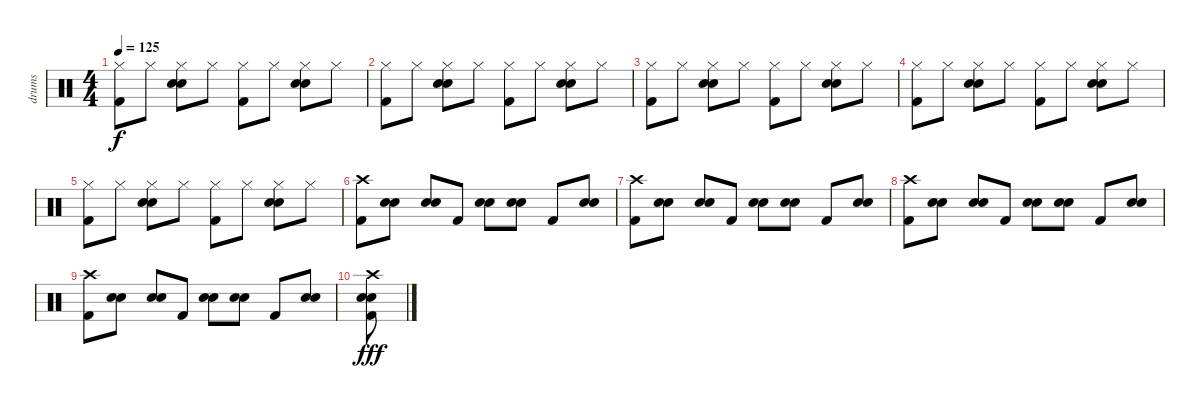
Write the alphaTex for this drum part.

\track ("drums" "drums") {instrument percussion}
\staff {score}
\articulation defaults
\ts (4 4)
\tempo 125
\clef neutral
\ks c
("Hi-Hat (closed)" "Kick (hit) 2").8{dy f} "Hi-Hat (closed)".8 ("Hi-Hat (closed)" "Snare (hit) 2" "Electric Snare (hit)").8 "Hi-Hat (closed)".8 ("Hi-Hat (closed)" "Kick (hit) 2").8 "Hi-Hat (closed)".8 ("Hi-Hat (closed)" "Snare (hit) 2" "Electric Snare (hit)").8 "Hi-Hat (closed)".8 |
("Hi-Hat (closed)" "Kick (hit) 2").8 "Hi-Hat (closed)".8 ("Hi-Hat (closed)" "Snare (hit) 2" "Electric Snare (hit)").8 "Hi-Hat (closed)".8 ("Hi-Hat (closed)" "Kick (hit) 2").8 "Hi-Hat (closed)".8 ("Hi-Hat (closed)" "Snare (hit) 2" "Electric Snare (hit)").8 "Hi-Hat (closed)".8 |
("Hi-Hat (closed)" "Kick (hit) 2").8 "Hi-Hat (closed)".8 ("Hi-Hat (closed)" "Snare (hit) 2" "Electric Snare (hit)").8 "Hi-Hat (closed)".8 ("Hi-Hat (closed)" "Kick (hit) 2").8 "Hi-Hat (closed)".8 ("Hi-Hat (closed)" "Snare (hit) 2" "Electric Snare (hit)").8 "Hi-Hat (closed)".8 |
("Hi-Hat (closed)" "Kick (hit) 2").8 "Hi-Hat (closed)".8 ("Hi-Hat (closed)" "Snare (hit) 2" "Electric Snare (hit)").8 "Hi-Hat (closed)".8 ("Hi-Hat (closed)" "Kick (hit) 2").8 "Hi-Hat (closed)".8 ("Hi-Hat (closed)" "Snare (hit) 2" "Electric Snare (hit)").8 "Hi-Hat (closed)".8 |
("Hi-Hat (closed)" "Kick (hit) 2").8 "Hi-Hat (closed)".8 ("Hi-Hat (closed)" "Snare (hit) 2" "Electric Snare (hit)").8 "Hi-Hat (closed)".8 ("Hi-Hat (closed)" "Kick (hit) 2").8 "Hi-Hat (closed)".8 ("Hi-Hat (closed)" "Snare (hit) 2" "Electric Snare (hit)").8 "Hi-Hat (closed)".8 |
("Crash high (hit)" "Kick (hit) 2").8 ("Snare (hit) 2" "Electric Snare (hit)").8 ("Snare (hit) 2" "Electric Snare (hit)").8 "Kick (hit) 2".8 ("Electric Snare (hit)" "Snare (hit) 2").8 ("Electric Snare (hit)" "Snare (hit) 2").8 "Kick (hit) 2".8 ("Electric Snare (hit)" "Snare (hit) 2").8 |
("Crash high (hit)" "Kick (hit) 2").8 ("Snare (hit) 2" "Electric Snare (hit)").8 ("Snare (hit) 2" "Electric Snare (hit)").8 "Kick (hit) 2".8 ("Electric Snare (hit)" "Snare (hit) 2").8 ("Electric Snare (hit)" "Snare (hit) 2").8 "Kick (hit) 2".8 ("Electric Snare (hit)" "Snare (hit) 2").8 |
("Crash high (hit)" "Kick (hit) 2").8 ("Snare (hit) 2" "Electric Snare (hit)").8 ("Snare (hit) 2" "Electric Snare (hit)").8 "Kick (hit) 2".8 ("Electric Snare (hit)" "Snare (hit) 2").8 ("Electric Snare (hit)" "Snare (hit) 2").8 "Kick (hit) 2".8 ("Electric Snare (hit)" "Snare (hit) 2").8 |
("Crash high (hit)" "Kick (hit) 2").8 ("Snare (hit) 2" "Electric Snare (hit)").8 ("Snare (hit) 2" "Electric Snare (hit)").8 "Kick (hit) 2".8 ("Electric Snare (hit)" "Snare (hit) 2").8 ("Electric Snare (hit)" "Snare (hit) 2").8 "Kick (hit) 2".8 ("Electric Snare (hit)" "Snare (hit) 2").8 |
("Crash high (hit)" "Kick (hit) 2" "Snare (hit) 2" "Electric Snare (hit)").8{dy fff}
